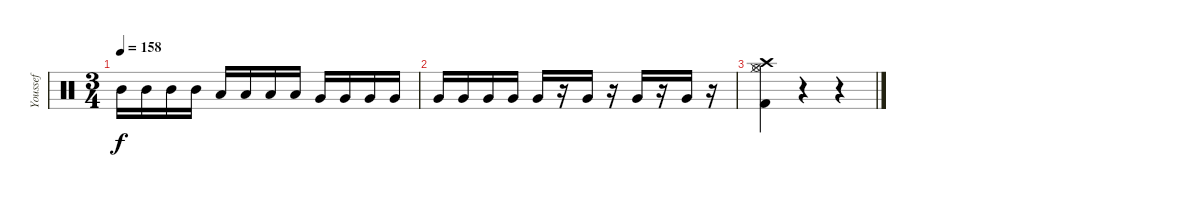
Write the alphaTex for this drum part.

\track ("Youssef" "Youssef") {instrument percussion}
\staff {score}
\articulation defaults
\ts (3 4)
\tempo 158
\clef neutral
\ks c "Mid Tom (hit)".16{dy f} "Mid Tom (hit)".16 "Mid Tom (hit)".16 "Mid Tom (hit)".16 "Low Tom (hit)".16 "Low Tom (hit)".16 "Low Tom (hit)".16 "Low Tom (hit)".16 "Very Low Tom (hit)".16 "Very Low Tom (hit)".16 "Very Low Tom (hit)".16 "Very Low Tom (hit)".16
|
"Very Low Tom (hit)".16 "Very Low Tom (hit)".16 "Very Low Tom (hit)".16 "Very Low Tom (hit)".16 "Very Low Tom (hit)".16 r.16 "Very Low Tom (hit)".16 r.16 "Very Low Tom (hit)".16 r.16 "Very Low Tom (hit)".16 r.16 |
("Kick (hit) 2" "Hi-Hat (closed)" "Hi-Hat (open)" "Crash high (hit)").4 r.4 r.4
